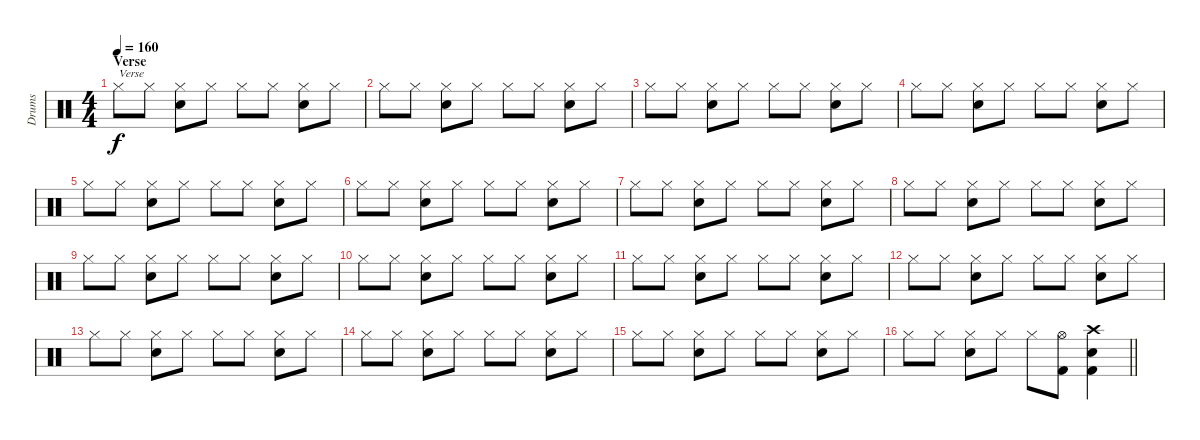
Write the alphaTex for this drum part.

\track ("Drums" "Drums") {instrument percussion}
\staff {score}
\articulation defaults
\ts (4 4)
\section ("" "Verse")
\tempo 160
\clef neutral
\ks c "Hi-Hat (closed)".8{txt "Verse" dy f} "Hi-Hat (closed)".8
("Hi-Hat (closed)" "Electric Snare (hit)").8 "Hi-Hat (closed)".8 "Hi-Hat (closed)".8 "Hi-Hat (closed)".8 ("Hi-Hat (closed)" "Electric Snare (hit)").8 "Hi-Hat (closed)".8 |
"Hi-Hat (closed)".8 "Hi-Hat (closed)".8 ("Hi-Hat (closed)" "Electric Snare (hit)").8 "Hi-Hat (closed)".8 "Hi-Hat (closed)".8 "Hi-Hat (closed)".8 ("Hi-Hat (closed)" "Electric Snare (hit)").8 "Hi-Hat (closed)".8 |
"Hi-Hat (closed)".8 "Hi-Hat (closed)".8 ("Hi-Hat (closed)" "Electric Snare (hit)").8 "Hi-Hat (closed)".8 "Hi-Hat (closed)".8 "Hi-Hat (closed)".8 ("Hi-Hat (closed)" "Electric Snare (hit)").8 "Hi-Hat (closed)".8 |
"Hi-Hat (closed)".8 "Hi-Hat (closed)".8 ("Hi-Hat (closed)" "Electric Snare (hit)").8 "Hi-Hat (closed)".8 "Hi-Hat (closed)".8 "Hi-Hat (closed)".8 ("Hi-Hat (closed)" "Electric Snare (hit)").8 "Hi-Hat (closed)".8 |
"Hi-Hat (closed)".8 "Hi-Hat (closed)".8 ("Hi-Hat (closed)" "Electric Snare (hit)").8 "Hi-Hat (closed)".8 "Hi-Hat (closed)".8 "Hi-Hat (closed)".8 ("Hi-Hat (closed)" "Electric Snare (hit)").8 "Hi-Hat (closed)".8 |
"Hi-Hat (closed)".8 "Hi-Hat (closed)".8 ("Hi-Hat (closed)" "Electric Snare (hit)").8 "Hi-Hat (closed)".8 "Hi-Hat (closed)".8 "Hi-Hat (closed)".8 ("Hi-Hat (closed)" "Electric Snare (hit)").8 "Hi-Hat (closed)".8 |
"Hi-Hat (closed)".8 "Hi-Hat (closed)".8 ("Hi-Hat (closed)" "Electric Snare (hit)").8 "Hi-Hat (closed)".8 "Hi-Hat (closed)".8 "Hi-Hat (closed)".8 ("Hi-Hat (closed)" "Electric Snare (hit)").8 "Hi-Hat (closed)".8 |
"Hi-Hat (closed)".8 "Hi-Hat (closed)".8 ("Hi-Hat (closed)" "Electric Snare (hit)").8 "Hi-Hat (closed)".8 "Hi-Hat (closed)".8 "Hi-Hat (closed)".8 ("Hi-Hat (closed)" "Electric Snare (hit)").8 "Hi-Hat (closed)".8 |
"Hi-Hat (closed)".8 "Hi-Hat (closed)".8 ("Hi-Hat (closed)" "Electric Snare (hit)").8 "Hi-Hat (closed)".8 "Hi-Hat (closed)".8 "Hi-Hat (closed)".8 ("Hi-Hat (closed)" "Electric Snare (hit)").8 "Hi-Hat (closed)".8 |
"Hi-Hat (closed)".8 "Hi-Hat (closed)".8 ("Hi-Hat (closed)" "Electric Snare (hit)").8 "Hi-Hat (closed)".8 "Hi-Hat (closed)".8 "Hi-Hat (closed)".8 ("Hi-Hat (closed)" "Electric Snare (hit)").8 "Hi-Hat (closed)".8 |
"Hi-Hat (closed)".8 "Hi-Hat (closed)".8 ("Hi-Hat (closed)" "Electric Snare (hit)").8 "Hi-Hat (closed)".8 "Hi-Hat (closed)".8 "Hi-Hat (closed)".8 ("Hi-Hat (closed)" "Electric Snare (hit)").8 "Hi-Hat (closed)".8 |
"Hi-Hat (closed)".8 "Hi-Hat (closed)".8 ("Hi-Hat (closed)" "Electric Snare (hit)").8 "Hi-Hat (closed)".8 "Hi-Hat (closed)".8 "Hi-Hat (closed)".8 ("Hi-Hat (closed)" "Electric Snare (hit)").8 "Hi-Hat (closed)".8 |
"Hi-Hat (closed)".8 "Hi-Hat (closed)".8 ("Hi-Hat (closed)" "Electric Snare (hit)").8 "Hi-Hat (closed)".8 "Hi-Hat (closed)".8 "Hi-Hat (closed)".8 ("Hi-Hat (closed)" "Electric Snare (hit)").8 "Hi-Hat (closed)".8 |
"Hi-Hat (closed)".8 "Hi-Hat (closed)".8 ("Hi-Hat (closed)" "Electric Snare (hit)").8 "Hi-Hat (closed)".8 "Hi-Hat (closed)".8 "Hi-Hat (closed)".8 ("Hi-Hat (closed)" "Electric Snare (hit)").8 "Hi-Hat (closed)".8 |
"Hi-Hat (closed)".8 "Hi-Hat (closed)".8 ("Hi-Hat (closed)" "Electric Snare (hit)").8 "Hi-Hat (closed)".8 "Hi-Hat (closed)".8 "Hi-Hat (closed)".8 ("Hi-Hat (closed)" "Electric Snare (hit)").8 "Hi-Hat (closed)".8 |
\barLineRight lightlight "Hi-Hat (closed)".8 "Hi-Hat (closed)".8
("Hi-Hat (closed)" "Electric Snare (hit)").8 "Hi-Hat (closed)".8 "Hi-Hat (closed)".8 ("Hi-Hat (open)" "Kick (hit) 2").8 ("Crash high (hit)" "Electric Snare (hit)" "Kick (hit) 2").4
